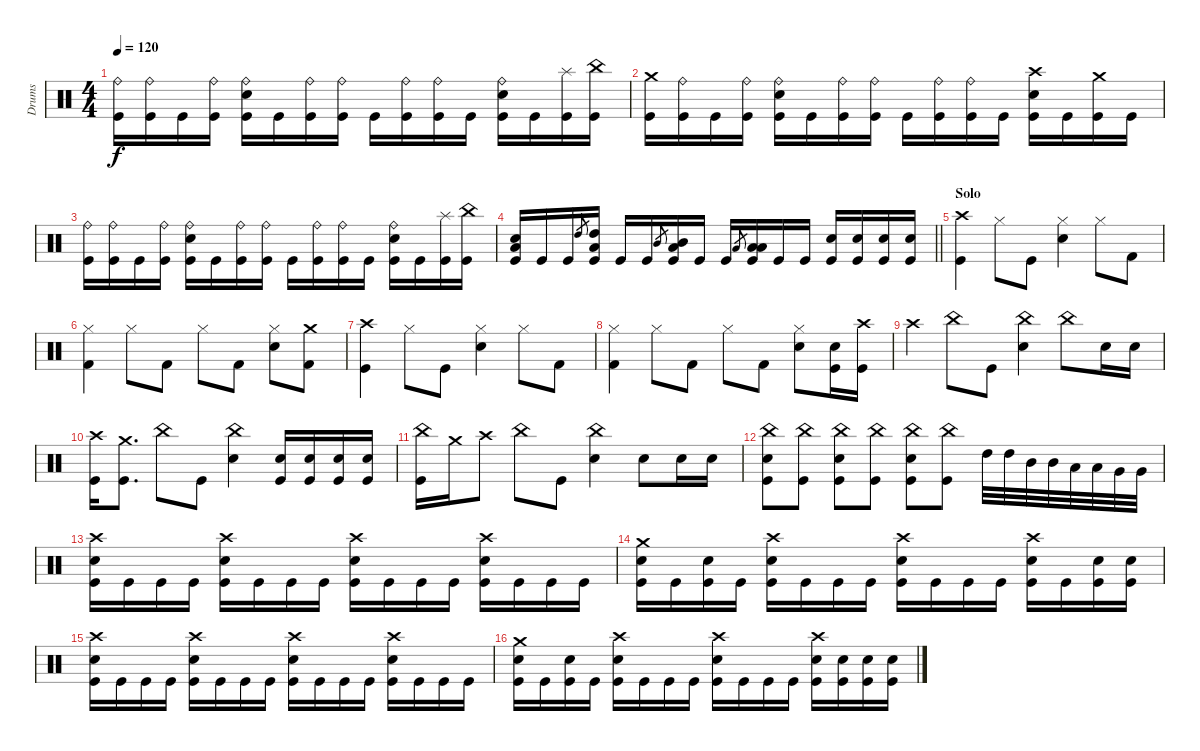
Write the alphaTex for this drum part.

\track ("Drums" "Drums") {instrument percussion}
\staff {score}
\articulation defaults
\ts (4 4)
\tempo 120
\clef neutral
\ks c
("Ride (bell)" "Kick (hit)").16{dy f} ("Ride (bell)" "Kick (hit)").16 "Kick (hit)".16 ("Ride (bell)" "Kick (hit)").16 ("Ride (bell)" "Snare (hit) 2" "Kick (hit)").16 "Kick (hit)".16 ("Ride (bell)" "Kick (hit)").16 ("Ride (bell)" "Kick (hit)").16 "Kick (hit)".16 ("Ride (bell)" "Kick (hit)").16 ("Ride (bell)" "Kick (hit)").16 "Kick (hit)".16 ("Ride (bell)" "Snare (hit) 2" "Kick (hit)").16 "Kick (hit)".16 ("Splash (hit)" "Kick (hit)").16 ("China (hit)" "Kick (hit)").16 |
("Crash medium (hit)" "Kick (hit)").16 ("Ride (bell)" "Kick (hit)").16 "Kick (hit)".16 ("Ride (bell)" "Kick (hit)").16 ("Ride (bell)" "Snare (hit) 2" "Kick (hit)").16 "Kick (hit)".16 ("Ride (bell)" "Kick (hit)").16 ("Ride (bell)" "Kick (hit)").16 "Kick (hit)".16 ("Ride (bell)" "Kick (hit)").16 ("Ride (bell)" "Kick (hit)").16 "Kick (hit)".16 ("Crash high (hit)" "Snare (hit) 2" "Kick (hit)").16 "Kick (hit)".16 ("Crash medium (hit)" "Kick (hit)").16 "Kick (hit)".16 |
("Ride (bell)" "Kick (hit)").16 ("Ride (bell)" "Kick (hit)").16 "Kick (hit)".16 ("Ride (bell)" "Kick (hit)").16 ("Ride (bell)" "Snare (hit) 2" "Kick (hit)").16 "Kick (hit)".16 ("Ride (bell)" "Kick (hit)").16 ("Ride (bell)" "Kick (hit)").16 "Kick (hit)".16 ("Ride (bell)" "Kick (hit)").16 ("Ride (bell)" "Kick (hit)").16 "Kick (hit)".16 ("Ride (bell)" "Snare (hit) 2" "Kick (hit)").16 "Kick (hit)".16 ("Splash (hit)" "Kick (hit)").16 ("China (hit)" "Kick (hit)").16 |
\barLineRight lightlight
("Snare (hit) 2" "Low Floor Tom (hit)" "Kick (hit)").16 "Kick (hit)".16 "Kick (hit)".16 "High Tom (hit)".8{gr} ("High Tom (hit)" "Low Floor Tom (hit)" "Kick (hit)").16 "Kick (hit)".16 "Kick (hit)".16 "Mid Tom (hit)".8{gr} ("Mid Tom (hit)" "Low Floor Tom (hit)" "Kick (hit)").16 "Kick (hit)".16 "Kick (hit)".16 "Low Tom (hit)".8{gr} ("Low Tom (hit)" "Low Floor Tom (hit)" "Kick (hit)").16 "Kick (hit)".16 "Kick (hit)".16 ("Snare (hit) 2" "Kick (hit)").16 ("Snare (hit) 2" "Kick (hit)").16 ("Snare (hit) 2" "Kick (hit)").16 ("Snare (hit) 2" "Kick (hit)").16 |
\section ("" "Solo")
("Crash high (hit)" "Kick (hit)").4 "Hi-Hat (closed)".8 "Kick (hit)".8 ("Hi-Hat (closed)" "Snare (hit) 2").4 "Hi-Hat (closed)".8 "Kick (hit) 2".8 |
("Hi-Hat (closed)" "Kick (hit) 2").4 "Hi-Hat (closed)".8 "Kick (hit) 2".8 "Hi-Hat (closed)".8 "Kick (hit) 2".8 ("Snare (hit) 2" "Hi-Hat (closed)").8 ("Crash medium (hit)" "Kick (hit) 2").8 |
("Crash high (hit)" "Kick (hit)").4 "Hi-Hat (closed)".8 "Kick (hit)".8 ("Hi-Hat (closed)" "Snare (hit) 2").4 "Hi-Hat (closed)".8 "Kick (hit) 2".8 |
("Hi-Hat (closed)" "Kick (hit) 2").4 "Hi-Hat (closed)".8 "Kick (hit) 2".8 "Hi-Hat (closed)".8 "Kick (hit) 2".8 ("Snare (hit) 2" "Hi-Hat (closed)").8 ("Snare (hit) 2" "Kick (hit)").16 ("Crash high (hit)" "Kick (hit)").16 |
"Crash high (hit)".4 "China (hit)".8 "Kick (hit)".8 ("China (hit)" "Snare (hit) 2").4 "China (hit)".8 "Snare (hit) 2".16 "Snare (hit) 2".16 |
("Crash high (hit)" "Kick (hit)").16 ("Crash medium (hit)" "Kick (hit)").8{d} "China (hit)".8 "Kick (hit)".8 ("China (hit)" "Snare (hit) 2").4 ("Snare (hit) 2" "Kick (hit)").16 ("Snare (hit) 2" "Kick (hit)").16 ("Snare (hit) 2" "Kick (hit)").16 ("Snare (hit) 2" "Kick (hit)").16 |
("China (hit)" "Kick (hit)").16 "Crash medium (hit)".16 "Crash high (hit)".8 "China (hit)".8 "Kick (hit)".8 ("China (hit)" "Snare (hit) 2").4 "Snare (hit) 2".8 "Snare (hit) 2".16 "Snare (hit) 2".16 |
("China (hit)" "Snare (hit) 2" "Kick (hit)").8 ("China (hit)" "Kick (hit)").8 ("China (hit)" "Snare (hit) 2" "Kick (hit)").8 ("China (hit)" "Kick (hit)").8 ("China (hit)" "Snare (hit) 2" "Kick (hit)").8 ("China (hit)" "Kick (hit)").8 "High Tom (hit)".32 "High Tom (hit)".32 "Mid Tom (hit)".32 "Mid Tom (hit)".32 "Low Tom (hit)".32 "Low Tom (hit)".32 "Very Low Tom (hit)".32 "Very Low Tom (hit)".32 |
("Crash high (hit)" "Snare (hit) 2" "Kick (hit)").16 "Kick (hit)".16 "Kick (hit)".16 "Kick (hit)".16 ("Crash high (hit)" "Snare (hit) 2" "Kick (hit)").16 "Kick (hit)".16 "Kick (hit)".16 "Kick (hit)".16 ("Crash high (hit)" "Snare (hit) 2" "Kick (hit)").16 "Kick (hit)".16 "Kick (hit)".16 "Kick (hit)".16 ("Crash high (hit)" "Snare (hit) 2" "Kick (hit)").16 "Kick (hit)".16 "Kick (hit)".16 "Kick (hit)".16 |
("Crash medium (hit)" "Snare (hit) 2" "Kick (hit)").16 "Kick (hit)".16 ("Snare (hit) 2" "Kick (hit)").16 "Kick (hit)".16 ("Crash high (hit)" "Snare (hit) 2" "Kick (hit)").16 "Kick (hit)".16 "Kick (hit)".16 "Kick (hit)".16 ("Crash high (hit)" "Snare (hit) 2" "Kick (hit)").16 "Kick (hit)".16 "Kick (hit)".16 "Kick (hit)".16 ("Crash high (hit)" "Snare (hit) 2" "Kick (hit)").16 "Kick (hit)".16 ("Snare (hit) 2" "Kick (hit)").16 ("Snare (hit) 2" "Kick (hit)").16 |
("Crash high (hit)" "Snare (hit) 2" "Kick (hit)").16 "Kick (hit)".16 "Kick (hit)".16 "Kick (hit)".16 ("Crash high (hit)" "Snare (hit) 2" "Kick (hit)").16 "Kick (hit)".16 "Kick (hit)".16 "Kick (hit)".16 ("Crash high (hit)" "Snare (hit) 2" "Kick (hit)").16 "Kick (hit)".16 "Kick (hit)".16 "Kick (hit)".16 ("Crash high (hit)" "Snare (hit) 2" "Kick (hit)").16 "Kick (hit)".16 "Kick (hit)".16 "Kick (hit)".16 |
("Crash medium (hit)" "Snare (hit) 2" "Kick (hit)").16 "Kick (hit)".16 ("Snare (hit) 2" "Kick (hit)").16 "Kick (hit)".16 ("Crash high (hit)" "Snare (hit) 2" "Kick (hit)").16 "Kick (hit)".16 "Kick (hit)".16 "Kick (hit)".16 ("Crash high (hit)" "Snare (hit) 2" "Kick (hit)").16 "Kick (hit)".16 "Kick (hit)".16 "Kick (hit)".16 ("Crash high (hit)" "Snare (hit) 2" "Kick (hit)").16 ("Snare (hit) 2" "Kick (hit)").16 ("Snare (hit) 2" "Kick (hit)").16 ("Snare (hit) 2" "Kick (hit)").16
